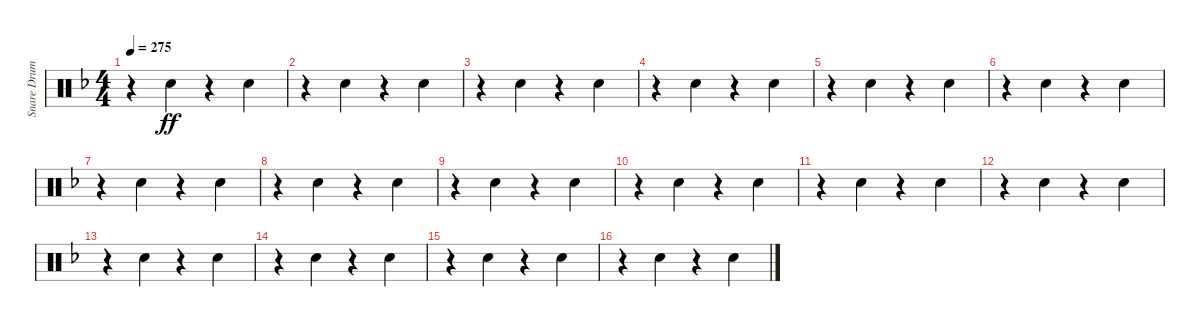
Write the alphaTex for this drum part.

\track ("Snare Drum" "Snare Drum") {instrument percussion}
\staff {score}
\articulation defaults
\ts (4 4)
\tempo 275
\clef neutral
\ks dminor
r.4{dy ff} "Electric Snare (hit)".4 r.4 "Electric Snare (hit)".4 |
r.4 "Electric Snare (hit)".4 r.4 "Electric Snare (hit)".4 |
r.4 "Electric Snare (hit)".4 r.4 "Electric Snare (hit)".4 |
r.4 "Electric Snare (hit)".4 r.4 "Electric Snare (hit)".4 |
r.4 "Electric Snare (hit)".4 r.4 "Electric Snare (hit)".4 |
r.4 "Electric Snare (hit)".4 r.4 "Electric Snare (hit)".4 |
r.4 "Electric Snare (hit)".4 r.4 "Electric Snare (hit)".4 |
r.4 "Electric Snare (hit)".4 r.4 "Electric Snare (hit)".4 |
r.4 "Electric Snare (hit)".4 r.4 "Electric Snare (hit)".4 |
r.4 "Electric Snare (hit)".4 r.4 "Electric Snare (hit)".4 |
r.4 "Electric Snare (hit)".4 r.4 "Electric Snare (hit)".4 |
r.4 "Electric Snare (hit)".4 r.4 "Electric Snare (hit)".4 |
r.4 "Electric Snare (hit)".4 r.4 "Electric Snare (hit)".4 |
r.4 "Electric Snare (hit)".4 r.4 "Electric Snare (hit)".4 |
r.4 "Electric Snare (hit)".4 r.4 "Electric Snare (hit)".4 |
r.4 "Electric Snare (hit)".4 r.4 "Electric Snare (hit)".4
